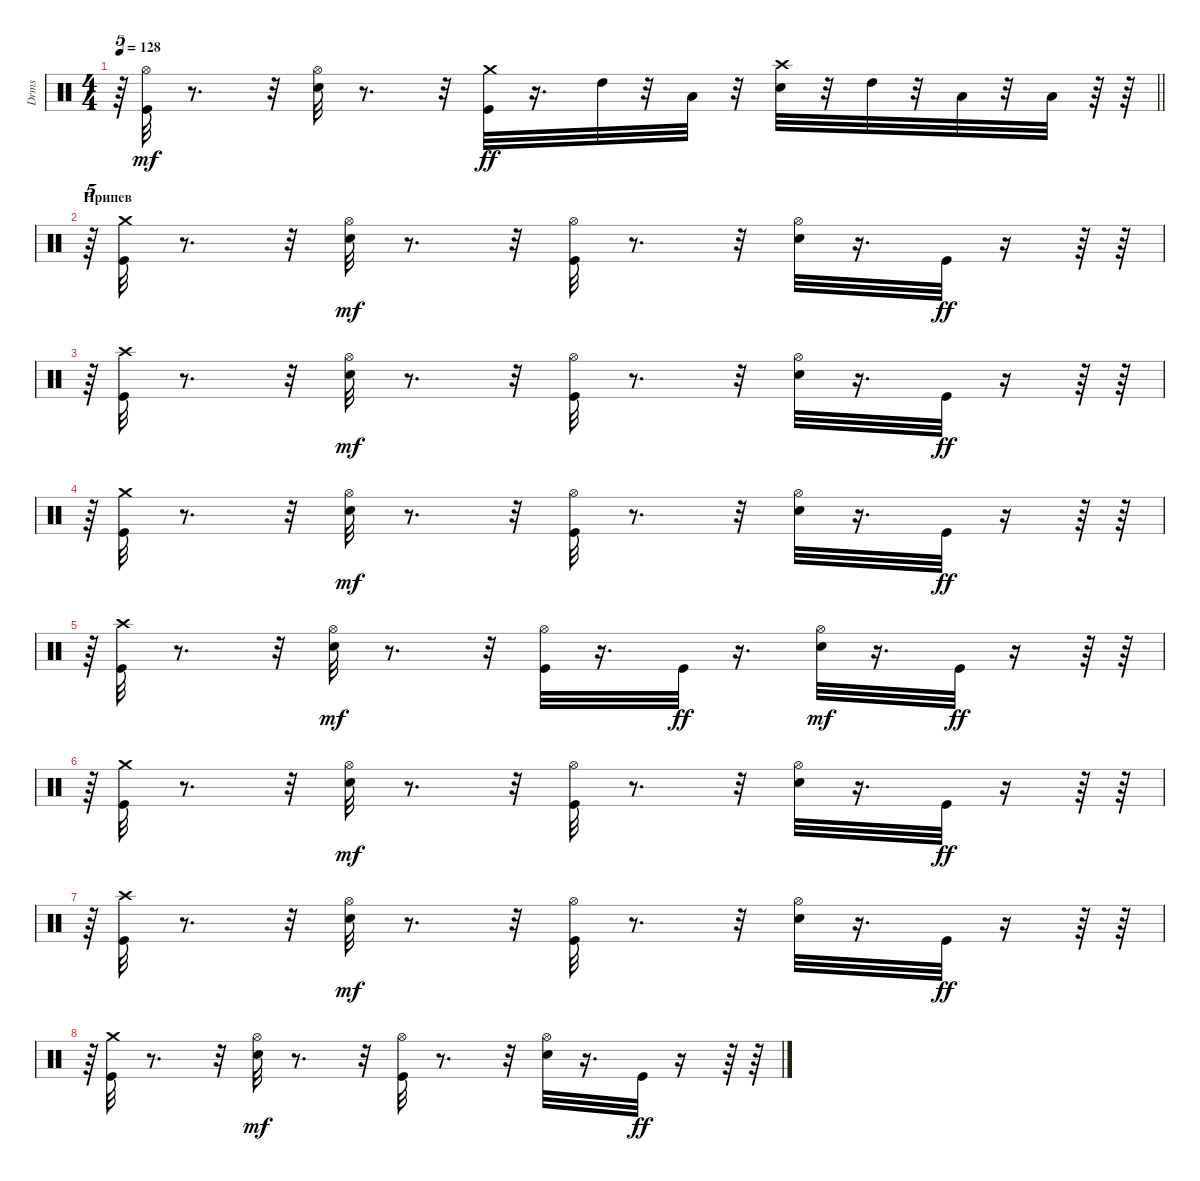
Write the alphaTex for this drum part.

\track ("Drms" "Drms") {instrument percussion}
\staff {score}
\articulation defaults
\ts (4 4)
\tempo 128
\clef neutral
\barLineRight lightlight
\ks c
r.64{tu (5 4) dy mf} ("Kick (hit)" "Hi-Hat (open)").32 r.8{d} r.32 ("Snare (hit) 2" "Hi-Hat (open)").32 r.8{d} r.32 ("Kick (hit)" "Crash medium (hit)").32{dy ff} r.16{d} "High Tom (hit)".32 r.32 "Low Tom (hit)".32 r.32 ("Snare (hit) 2" "Crash high (hit)").32 r.32 "High Tom (hit)".32 r.32 "Low Tom (hit)".32 r.32 "Low Floor Tom (hit)".32 r.64 r.64 |
\section ("" "Припев")
r.64{tu (5 4)} ("Kick (hit)" "Crash medium (hit)").32 r.8{d} r.32 ("Snare (hit) 2" "Hi-Hat (open)").32{dy mf} r.8{d} r.32 ("Kick (hit)" "Hi-Hat (open)").32 r.8{d} r.32 ("Snare (hit) 2" "Hi-Hat (open)").32 r.16{d} "Kick (hit)".32{dy ff} r.16 r.64 r.64 |
r.64{tu (5 4)} ("Kick (hit)" "Crash high (hit)").32 r.8{d} r.32 ("Snare (hit) 2" "Hi-Hat (open)").32{dy mf} r.8{d} r.32 ("Kick (hit)" "Hi-Hat (open)").32 r.8{d} r.32 ("Snare (hit) 2" "Hi-Hat (open)").32 r.16{d} "Kick (hit)".32{dy ff} r.16 r.64 r.64 |
r.64{tu (5 4)} ("Kick (hit)" "Crash medium (hit)").32 r.8{d} r.32 ("Snare (hit) 2" "Hi-Hat (open)").32{dy mf} r.8{d} r.32 ("Kick (hit)" "Hi-Hat (open)").32 r.8{d} r.32 ("Snare (hit) 2" "Hi-Hat (open)").32 r.16{d} "Kick (hit)".32{dy ff} r.16 r.64 r.64 |
r.64{tu (5 4)} ("Kick (hit)" "Crash high (hit)").32 r.8{d} r.32 ("Snare (hit) 2" "Hi-Hat (open)").32{dy mf} r.8{d} r.32 ("Kick (hit)" "Hi-Hat (open)").32 r.16{d} "Kick (hit)".32{dy ff} r.16{d} ("Snare (hit) 2" "Hi-Hat (open)").32{dy mf} r.16{d} "Kick (hit)".32{dy ff} r.16 r.64 r.64 |
r.64{tu (5 4)} ("Kick (hit)" "Crash medium (hit)").32 r.8{d} r.32 ("Snare (hit) 2" "Hi-Hat (open)").32{dy mf} r.8{d} r.32 ("Kick (hit)" "Hi-Hat (open)").32 r.8{d} r.32 ("Snare (hit) 2" "Hi-Hat (open)").32 r.16{d} "Kick (hit)".32{dy ff} r.16 r.64 r.64 |
r.64{tu (5 4)} ("Kick (hit)" "Crash high (hit)").32 r.8{d} r.32 ("Snare (hit) 2" "Hi-Hat (open)").32{dy mf} r.8{d} r.32 ("Kick (hit)" "Hi-Hat (open)").32 r.8{d} r.32 ("Snare (hit) 2" "Hi-Hat (open)").32 r.16{d} "Kick (hit)".32{dy ff} r.16 r.64 r.64 |
r.64{tu (5 4)} ("Kick (hit)" "Crash medium (hit)").32 r.8{d} r.32 ("Snare (hit) 2" "Hi-Hat (open)").32{dy mf} r.8{d} r.32 ("Kick (hit)" "Hi-Hat (open)").32 r.8{d} r.32 ("Snare (hit) 2" "Hi-Hat (open)").32 r.16{d} "Kick (hit)".32{dy ff} r.16 r.64 r.64
